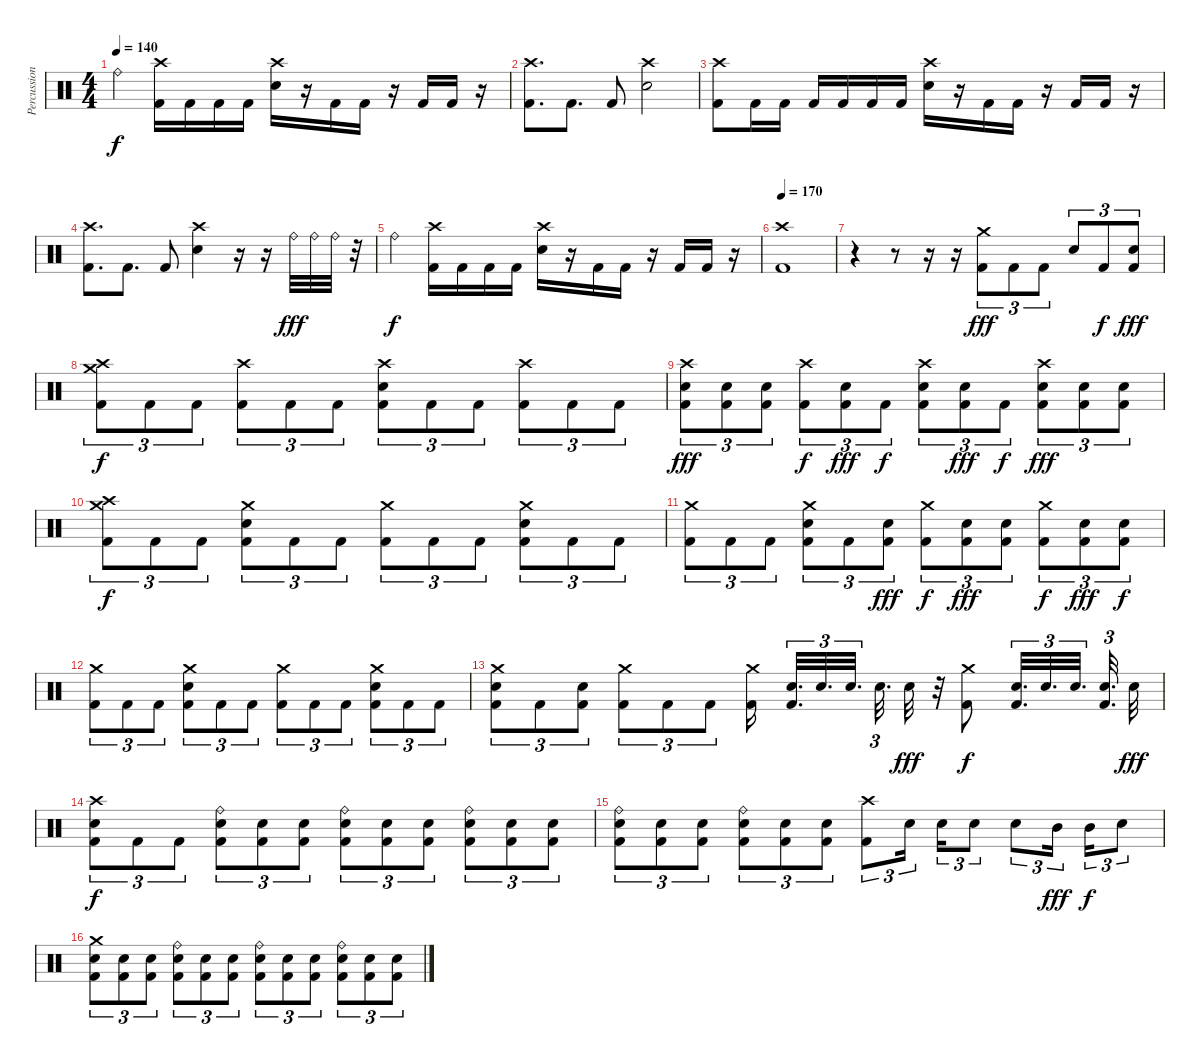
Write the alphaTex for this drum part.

\track ("Percussion" "Percussion") {instrument percussion}
\staff {score}
\articulation defaults
\ts (4 4)
\tempo 140
\clef neutral
\ks c "Ride (bell)".4{dy f}
("Crash high (hit)" "Kick (hit) 2").16 "Kick (hit) 2".16 "Kick (hit) 2".16 "Kick (hit) 2".16 ("Crash high (hit)" "Electric Snare (hit)").16 r.16 "Kick (hit) 2".16 "Kick (hit) 2".16 r.16 "Kick (hit) 2".16 "Kick (hit) 2".16 r.16 |
("Crash high (hit)" "Kick (hit) 2").8{d} "Kick (hit) 2".8{d} "Kick (hit) 2".8 ("Crash high (hit)" "Electric Snare (hit)").2 |
("Crash high (hit)" "Kick (hit) 2").8 "Kick (hit) 2".16 "Kick (hit) 2".16 "Kick (hit) 2".16 "Kick (hit) 2".16 "Kick (hit) 2".16 "Kick (hit) 2".16 ("Crash high (hit)" "Electric Snare (hit)").16 r.16 "Kick (hit) 2".16 "Kick (hit) 2".16 r.16 "Kick (hit) 2".16 "Kick (hit) 2".16 r.16 |
("Crash high (hit)" "Kick (hit) 2").8{d} "Kick (hit) 2".8{d} "Kick (hit) 2".8 ("Crash high (hit)" "Electric Snare (hit)").4 r.16 r.16 "Ride (bell)".32{dy fff} "Ride (bell)".32 "Ride (bell)".32 r.32 |
"Ride (bell)".4{dy f} ("Crash high (hit)" "Kick (hit) 2").16 "Kick (hit) 2".16 "Kick (hit) 2".16 "Kick (hit) 2".16 ("Crash high (hit)" "Electric Snare (hit)").16 r.16 "Kick (hit) 2".16 "Kick (hit) 2".16 r.16 "Kick (hit) 2".16 "Kick (hit) 2".16 r.16 |
\tempo 170
("Crash high (hit)" "Kick (hit) 2").1 |
r.4 r.8 r.16 r.16 ("Crash medium (hit)" "Kick (hit) 2").8{tu (3 2) dy fff} "Kick (hit) 2".8{tu (3 2)} "Kick (hit) 2".8{tu (3 2)} "Electric Snare (hit)".8{tu (3 2)} "Kick (hit) 2".8{tu (3 2) dy f} ("Electric Snare (hit)" "Kick (hit) 2").8{tu (3 2) dy fff} |
("Crash medium (hit)" "Crash high (hit)" "Kick (hit) 2").8{tu (3 2) dy f} "Kick (hit) 2".8{tu (3 2)} "Kick (hit) 2".8{tu (3 2)} ("Crash high (hit)" "Kick (hit) 2").8{tu (3 2)} "Kick (hit) 2".8{tu (3 2)} "Kick (hit) 2".8{tu (3 2)} ("Crash high (hit)" "Electric Snare (hit)" "Kick (hit) 2").8{tu (3 2)} "Kick (hit) 2".8{tu (3 2)} "Kick (hit) 2".8{tu (3 2)} ("Crash high (hit)" "Kick (hit) 2").8{tu (3 2)} "Kick (hit) 2".8{tu (3 2)} "Kick (hit) 2".8{tu (3 2)} |
("Crash high (hit)" "Electric Snare (hit)" "Kick (hit) 2").8{tu (3 2) dy fff} ("Electric Snare (hit)" "Kick (hit) 2").8{tu (3 2)} ("Electric Snare (hit)" "Kick (hit) 2").8{tu (3 2)} ("Crash high (hit)" "Kick (hit) 2").8{tu (3 2) dy f} ("Electric Snare (hit)" "Kick (hit) 2").8{tu (3 2) dy fff} "Kick (hit) 2".8{tu (3 2) dy f} ("Crash high (hit)" "Electric Snare (hit)" "Kick (hit) 2").8{tu (3 2)} ("Electric Snare (hit)" "Kick (hit) 2").8{tu (3 2) dy fff} "Kick (hit) 2".8{tu (3 2) dy f} ("Crash high (hit)" "Electric Snare (hit)" "Kick (hit) 2").8{tu (3 2) dy fff} ("Electric Snare (hit)" "Kick (hit) 2").8{tu (3 2)} ("Electric Snare (hit)" "Kick (hit) 2").8{tu (3 2)} |
("Crash high (hit)" "Crash medium (hit)" "Kick (hit) 2").8{tu (3 2) dy f} "Kick (hit) 2".8{tu (3 2)} "Kick (hit) 2".8{tu (3 2)} ("Crash medium (hit)" "Electric Snare (hit)" "Kick (hit) 2").8{tu (3 2)} "Kick (hit) 2".8{tu (3 2)} "Kick (hit) 2".8{tu (3 2)} ("Crash medium (hit)" "Kick (hit) 2").8{tu (3 2)} "Kick (hit) 2".8{tu (3 2)} "Kick (hit) 2".8{tu (3 2)} ("Crash medium (hit)" "Electric Snare (hit)" "Kick (hit) 2").8{tu (3 2)} "Kick (hit) 2".8{tu (3 2)} "Kick (hit) 2".8{tu (3 2)} |
("Crash medium (hit)" "Kick (hit) 2").8{tu (3 2)} "Kick (hit) 2".8{tu (3 2)} "Kick (hit) 2".8{tu (3 2)} ("Crash medium (hit)" "Electric Snare (hit)" "Kick (hit) 2").8{tu (3 2)} "Kick (hit) 2".8{tu (3 2)} ("Electric Snare (hit)" "Kick (hit) 2").8{tu (3 2) dy fff} ("Crash medium (hit)" "Kick (hit) 2").8{tu (3 2) dy f} ("Electric Snare (hit)" "Kick (hit) 2").8{tu (3 2) dy fff} ("Electric Snare (hit)" "Kick (hit) 2").8{tu (3 2)} ("Crash medium (hit)" "Kick (hit) 2").8{tu (3 2) dy f} ("Electric Snare (hit)" "Kick (hit) 2").8{tu (3 2) dy fff} ("Electric Snare (hit)" "Kick (hit) 2").8{tu (3 2) dy f} |
("Crash medium (hit)" "Kick (hit) 2").8{tu (3 2)} "Kick (hit) 2".8{tu (3 2)} "Kick (hit) 2".8{tu (3 2)} ("Crash medium (hit)" "Electric Snare (hit)" "Kick (hit) 2").8{tu (3 2)} "Kick (hit) 2".8{tu (3 2)} "Kick (hit) 2".8{tu (3 2)} ("Crash medium (hit)" "Kick (hit) 2").8{tu (3 2)} "Kick (hit) 2".8{tu (3 2)} "Kick (hit) 2".8{tu (3 2)} ("Crash medium (hit)" "Electric Snare (hit)" "Kick (hit) 2").8{tu (3 2)} "Kick (hit) 2".8{tu (3 2)} "Kick (hit) 2".8{tu (3 2)} |
("Crash medium (hit)" "Electric Snare (hit)" "Kick (hit) 2").8{tu (3 2)} "Kick (hit) 2".8{tu (3 2)} ("Electric Snare (hit)" "Kick (hit) 2").8{tu (3 2)} ("Crash medium (hit)" "Kick (hit) 2").8{tu (3 2)} "Kick (hit) 2".8{tu (3 2)} "Kick (hit) 2".8{tu (3 2)} ("Crash medium (hit)" "Kick (hit) 2").16{beam splitsecondary} ("Electric Snare (hit)" "Kick (hit) 2").32{d tu (3 2)} "Electric Snare (hit)".32{d tu (3 2)} "Electric Snare (hit)".32{d tu (3 2)} "Electric Snare (hit)".32{d tu (3 2) beam splitsecondary} "Electric Snare (hit)".32{dy fff} r.32 ("Crash medium (hit)" "Kick (hit) 2").8{dy f} ("Electric Snare (hit)" "Kick (hit) 2").32{d tu (3 2)} "Electric Snare (hit)".32{d tu (3 2)} "Electric Snare (hit)".32{d tu (3 2)} ("Electric Snare (hit)" "Kick (hit) 2").32{d tu (3 2)} "Electric Snare (hit)".32{dy fff} |
("Crash high (hit)" "Electric Snare (hit)" "Kick (hit) 2").8{tu (3 2) dy f} "Kick (hit) 2".8{tu (3 2)} "Kick (hit) 2".8{tu (3 2)} ("Ride (bell)" "Electric Snare (hit)" "Kick (hit) 2").8{tu (3 2)} ("Electric Snare (hit)" "Kick (hit) 2").8{tu (3 2)} ("Electric Snare (hit)" "Kick (hit) 2").8{tu (3 2)} ("Ride (bell)" "Electric Snare (hit)" "Kick (hit) 2").8{tu (3 2)} ("Electric Snare (hit)" "Kick (hit) 2").8{tu (3 2)} ("Electric Snare (hit)" "Kick (hit) 2").8{tu (3 2)} ("Ride (bell)" "Electric Snare (hit)" "Kick (hit) 2").8{tu (3 2)} ("Electric Snare (hit)" "Kick (hit) 2").8{tu (3 2)} ("Electric Snare (hit)" "Kick (hit) 2").8{tu (3 2)} |
("Ride (bell)" "Electric Snare (hit)" "Kick (hit) 2").8{tu (3 2)} ("Electric Snare (hit)" "Kick (hit) 2").8{tu (3 2)} ("Electric Snare (hit)" "Kick (hit) 2").8{tu (3 2)} ("Ride (bell)" "Electric Snare (hit)" "Kick (hit) 2").8{tu (3 2)} ("Electric Snare (hit)" "Kick (hit) 2").8{tu (3 2)} ("Electric Snare (hit)" "Kick (hit) 2").8{tu (3 2)} ("Crash high (hit)" "Kick (hit) 2").8{tu (3 2)} "Electric Snare (hit)".16{tu (3 2) beam splitsecondary} "Electric Snare (hit)".16{tu (3 2)} "Electric Snare (hit)".8{tu (3 2)} "Electric Snare (hit)".8{tu (3 2)} "Mid Tom (hit)".16{tu (3 2) dy fff beam splitsecondary} "Mid Tom (hit)".16{tu (3 2) dy f} "Electric Snare (hit)".8{tu (3 2)} |
("Crash medium (hit)" "Electric Snare (hit)" "Kick (hit) 2").8{tu (3 2)} ("Electric Snare (hit)" "Kick (hit) 2").8{tu (3 2)} ("Electric Snare (hit)" "Kick (hit) 2").8{tu (3 2)} ("Ride (bell)" "Electric Snare (hit)" "Kick (hit) 2").8{tu (3 2)} ("Electric Snare (hit)" "Kick (hit) 2").8{tu (3 2)} ("Electric Snare (hit)" "Kick (hit) 2").8{tu (3 2)} ("Ride (bell)" "Electric Snare (hit)" "Kick (hit) 2").8{tu (3 2)} ("Electric Snare (hit)" "Kick (hit) 2").8{tu (3 2)} ("Electric Snare (hit)" "Kick (hit) 2").8{tu (3 2)} ("Ride (bell)" "Electric Snare (hit)" "Kick (hit) 2").8{tu (3 2)} ("Electric Snare (hit)" "Kick (hit) 2").8{tu (3 2)} ("Electric Snare (hit)" "Kick (hit) 2").8{tu (3 2)}
